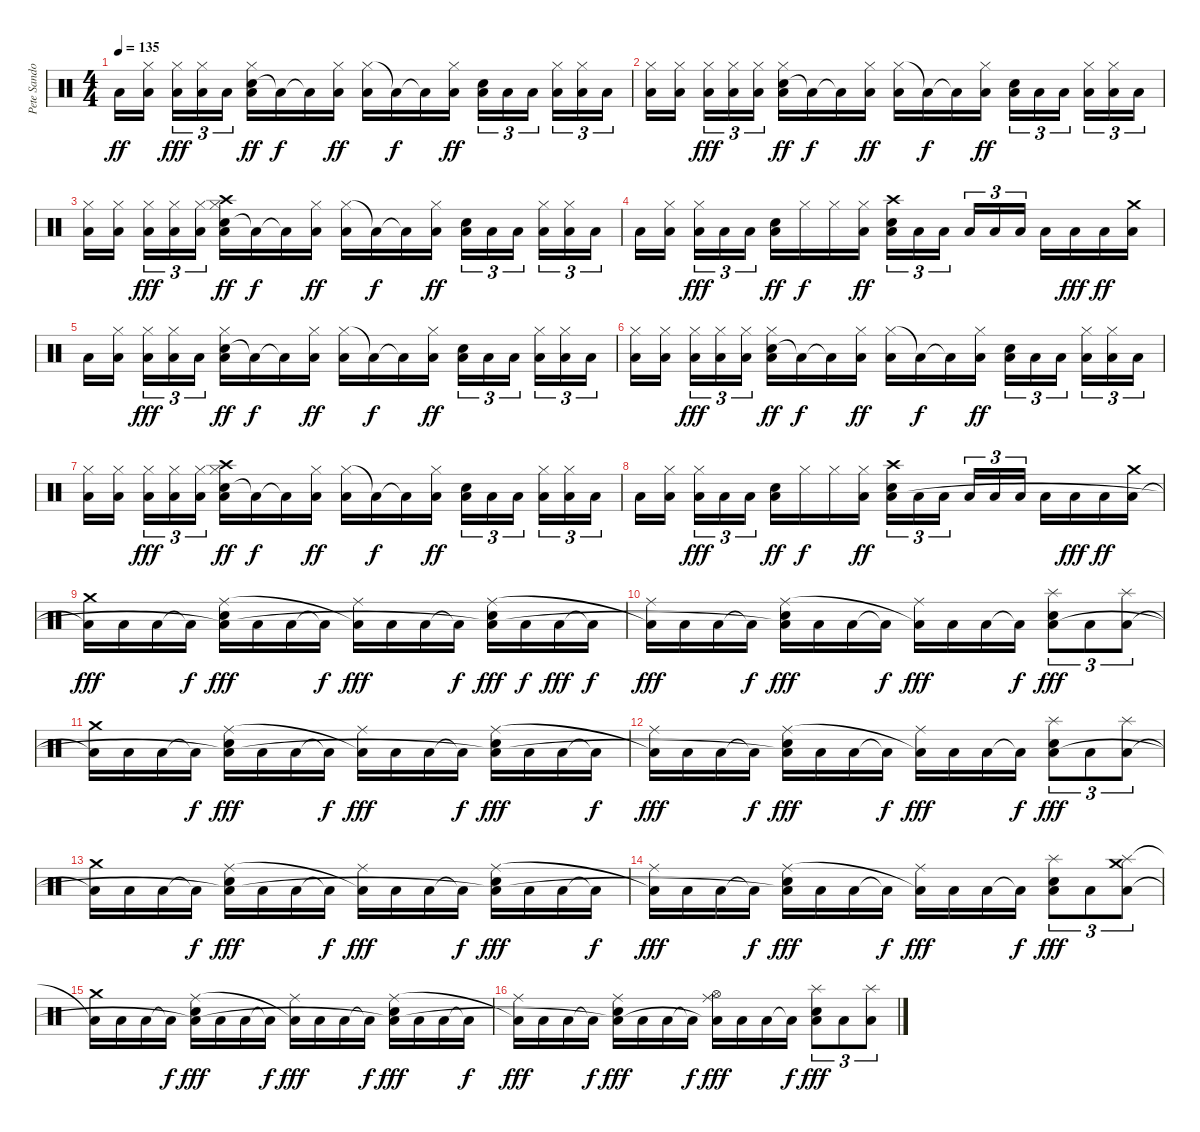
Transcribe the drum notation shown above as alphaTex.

\track ("Pete Sandoval" "Pete Sando") {instrument percussion}
\staff {score}
\articulation defaults
\ts (4 4)
\tempo 135
\clef neutral
\ks c "Low Floor Tom (hit)".16{dy ff}
("Hi-Hat (closed)" "Low Floor Tom (hit)").16{beam splitsecondary} ("Hi-Hat (closed)" "Low Floor Tom (hit)").16{tu (3 2) dy fff} ("Hi-Hat (closed)" "Low Floor Tom (hit)").16{tu (3 2)} "Low Floor Tom (hit)".16{tu (3 2)} ("Electric Snare (hit)" "Hi-Hat (closed)" "Low Floor Tom (hit)").16{dy ff} "Low Floor Tom (hit)"{t}.16{dy f} "Low Floor Tom (hit)"{t}.16 ("Hi-Hat (closed)" "Low Floor Tom (hit)").16{dy ff} ("Hi-Hat (closed)" "Low Floor Tom (hit)").16 "Low Floor Tom (hit)"{t}.16{dy f} "Low Floor Tom (hit)"{t}.16 ("Hi-Hat (closed)" "Low Floor Tom (hit)").16{dy ff} ("Electric Snare (hit)" "Low Floor Tom (hit)").16{tu (3 2)} "Low Floor Tom (hit)".16{tu (3 2)} "Low Floor Tom (hit)".16{tu (3 2) beam splitsecondary} ("Hi-Hat (closed)" "Low Floor Tom (hit)").16{tu (3 2)} ("Hi-Hat (closed)" "Low Floor Tom (hit)").16{tu (3 2)} "Low Floor Tom (hit)".16{tu (3 2)} |
("Hi-Hat (closed)" "Low Floor Tom (hit)").16 ("Hi-Hat (closed)" "Low Floor Tom (hit)").16{beam splitsecondary} ("Hi-Hat (closed)" "Low Floor Tom (hit)").16{tu (3 2) dy fff} ("Hi-Hat (closed)" "Low Floor Tom (hit)").16{tu (3 2)} ("Hi-Hat (closed)" "Low Floor Tom (hit)").16{tu (3 2)} ("Electric Snare (hit)" "Hi-Hat (closed)" "Low Floor Tom (hit)").16{dy ff} "Low Floor Tom (hit)"{t}.16{dy f} "Low Floor Tom (hit)"{t}.16 ("Hi-Hat (closed)" "Low Floor Tom (hit)").16{dy ff} ("Hi-Hat (closed)" "Low Floor Tom (hit)").16 "Low Floor Tom (hit)"{t}.16{dy f} "Low Floor Tom (hit)"{t}.16 ("Hi-Hat (closed)" "Low Floor Tom (hit)").16{dy ff} ("Electric Snare (hit)" "Low Floor Tom (hit)").16{tu (3 2)} "Low Floor Tom (hit)".16{tu (3 2)} "Low Floor Tom (hit)".16{tu (3 2) beam splitsecondary} ("Hi-Hat (closed)" "Low Floor Tom (hit)").16{tu (3 2)} ("Hi-Hat (closed)" "Low Floor Tom (hit)").16{tu (3 2)} "Low Floor Tom (hit)".16{tu (3 2)} |
("Hi-Hat (closed)" "Low Floor Tom (hit)").16 ("Hi-Hat (closed)" "Low Floor Tom (hit)").16{beam splitsecondary} ("Hi-Hat (closed)" "Low Floor Tom (hit)").16{tu (3 2) dy fff} ("Hi-Hat (closed)" "Low Floor Tom (hit)").16{tu (3 2)} ("Hi-Hat (closed)" "Low Floor Tom (hit)").16{tu (3 2)} ("Electric Snare (hit)" "Crash high (hit)" "Hi-Hat (closed)" "Low Floor Tom (hit)").16{dy ff} "Low Floor Tom (hit)"{t}.16{dy f} "Low Floor Tom (hit)"{t}.16 ("Hi-Hat (closed)" "Low Floor Tom (hit)").16{dy ff} ("Hi-Hat (closed)" "Low Floor Tom (hit)").16 "Low Floor Tom (hit)"{t}.16{dy f} "Low Floor Tom (hit)"{t}.16 ("Hi-Hat (closed)" "Low Floor Tom (hit)").16{dy ff} ("Electric Snare (hit)" "Low Floor Tom (hit)").16{tu (3 2)} "Low Floor Tom (hit)".16{tu (3 2)} "Low Floor Tom (hit)".16{tu (3 2) beam splitsecondary} ("Hi-Hat (closed)" "Low Floor Tom (hit)").16{tu (3 2)} ("Hi-Hat (closed)" "Low Floor Tom (hit)").16{tu (3 2)} "Low Floor Tom (hit)".16{tu (3 2)} |
"Low Floor Tom (hit)".16 ("Hi-Hat (closed)" "Low Floor Tom (hit)").16{beam splitsecondary} ("Hi-Hat (closed)" "Low Floor Tom (hit)").16{tu (3 2) dy fff} "Low Floor Tom (hit)".16{tu (3 2)} "Low Floor Tom (hit)".16{tu (3 2)} ("Electric Snare (hit)" "Low Floor Tom (hit)").16{dy ff} "Hi-Hat (closed)".16{dy f} "Hi-Hat (closed)".16 ("Hi-Hat (closed)" "Low Floor Tom (hit)").16{dy ff} ("Electric Snare (hit)" "Crash high (hit)" "Low Floor Tom (hit)").16{tu (3 2)} "Low Floor Tom (hit)".16{tu (3 2)} "Low Floor Tom (hit)".16{tu (3 2) beam splitsecondary} "Low Floor Tom (hit)".16{tu (3 2)} "Low Floor Tom (hit)".16{tu (3 2)} "Low Floor Tom (hit)".16{tu (3 2)} "Low Floor Tom (hit)".16 "Low Floor Tom (hit)".16{dy fff} "Low Floor Tom (hit)".16{dy ff} ("Crash medium (hit)" "Low Floor Tom (hit)").16 |
"Low Floor Tom (hit)".16 ("Hi-Hat (closed)" "Low Floor Tom (hit)").16{beam splitsecondary} ("Hi-Hat (closed)" "Low Floor Tom (hit)").16{tu (3 2) dy fff} ("Hi-Hat (closed)" "Low Floor Tom (hit)").16{tu (3 2)} "Low Floor Tom (hit)".16{tu (3 2)} ("Electric Snare (hit)" "Hi-Hat (closed)" "Low Floor Tom (hit)").16{dy ff} "Low Floor Tom (hit)"{t}.16{dy f} "Low Floor Tom (hit)"{t}.16 ("Hi-Hat (closed)" "Low Floor Tom (hit)").16{dy ff} ("Hi-Hat (closed)" "Low Floor Tom (hit)").16 "Low Floor Tom (hit)"{t}.16{dy f} "Low Floor Tom (hit)"{t}.16 ("Hi-Hat (closed)" "Low Floor Tom (hit)").16{dy ff} ("Electric Snare (hit)" "Low Floor Tom (hit)").16{tu (3 2)} "Low Floor Tom (hit)".16{tu (3 2)} "Low Floor Tom (hit)".16{tu (3 2) beam splitsecondary} ("Hi-Hat (closed)" "Low Floor Tom (hit)").16{tu (3 2)} ("Hi-Hat (closed)" "Low Floor Tom (hit)").16{tu (3 2)} "Low Floor Tom (hit)".16{tu (3 2)} |
("Hi-Hat (closed)" "Low Floor Tom (hit)").16 ("Hi-Hat (closed)" "Low Floor Tom (hit)").16{beam splitsecondary} ("Hi-Hat (closed)" "Low Floor Tom (hit)").16{tu (3 2) dy fff} ("Hi-Hat (closed)" "Low Floor Tom (hit)").16{tu (3 2)} ("Hi-Hat (closed)" "Low Floor Tom (hit)").16{tu (3 2)} ("Electric Snare (hit)" "Hi-Hat (closed)" "Low Floor Tom (hit)").16{dy ff} "Low Floor Tom (hit)"{t}.16{dy f} "Low Floor Tom (hit)"{t}.16 ("Hi-Hat (closed)" "Low Floor Tom (hit)").16{dy ff} ("Hi-Hat (closed)" "Low Floor Tom (hit)").16 "Low Floor Tom (hit)"{t}.16{dy f} "Low Floor Tom (hit)"{t}.16 ("Hi-Hat (closed)" "Low Floor Tom (hit)").16{dy ff} ("Electric Snare (hit)" "Low Floor Tom (hit)").16{tu (3 2)} "Low Floor Tom (hit)".16{tu (3 2)} "Low Floor Tom (hit)".16{tu (3 2) beam splitsecondary} ("Hi-Hat (closed)" "Low Floor Tom (hit)").16{tu (3 2)} ("Hi-Hat (closed)" "Low Floor Tom (hit)").16{tu (3 2)} "Low Floor Tom (hit)".16{tu (3 2)} |
("Hi-Hat (closed)" "Low Floor Tom (hit)").16 ("Hi-Hat (closed)" "Low Floor Tom (hit)").16{beam splitsecondary} ("Hi-Hat (closed)" "Low Floor Tom (hit)").16{tu (3 2) dy fff} ("Hi-Hat (closed)" "Low Floor Tom (hit)").16{tu (3 2)} ("Hi-Hat (closed)" "Low Floor Tom (hit)").16{tu (3 2)} ("Electric Snare (hit)" "Crash high (hit)" "Hi-Hat (closed)" "Low Floor Tom (hit)").16{dy ff} "Low Floor Tom (hit)"{t}.16{dy f} "Low Floor Tom (hit)"{t}.16 ("Hi-Hat (closed)" "Low Floor Tom (hit)").16{dy ff} ("Hi-Hat (closed)" "Low Floor Tom (hit)").16 "Low Floor Tom (hit)"{t}.16{dy f} "Low Floor Tom (hit)"{t}.16 ("Hi-Hat (closed)" "Low Floor Tom (hit)").16{dy ff} ("Electric Snare (hit)" "Low Floor Tom (hit)").16{tu (3 2)} "Low Floor Tom (hit)".16{tu (3 2)} "Low Floor Tom (hit)".16{tu (3 2) beam splitsecondary} ("Hi-Hat (closed)" "Low Floor Tom (hit)").16{tu (3 2)} ("Hi-Hat (closed)" "Low Floor Tom (hit)").16{tu (3 2)} "Low Floor Tom (hit)".16{tu (3 2)} |
"Low Floor Tom (hit)".16 ("Hi-Hat (closed)" "Low Floor Tom (hit)").16{beam splitsecondary} ("Hi-Hat (closed)" "Low Floor Tom (hit)").16{tu (3 2) dy fff} "Low Floor Tom (hit)".16{tu (3 2)} "Low Floor Tom (hit)".16{tu (3 2)} ("Electric Snare (hit)" "Low Floor Tom (hit)").16{dy ff} "Hi-Hat (closed)".16{dy f} "Hi-Hat (closed)".16 ("Hi-Hat (closed)" "Low Floor Tom (hit)").16{dy ff} ("Electric Snare (hit)" "Crash high (hit)" "Low Floor Tom (hit)").16{tu (3 2)} "Low Floor Tom (hit)".16{tu (3 2)} "Low Floor Tom (hit)".16{tu (3 2) beam splitsecondary} "Low Floor Tom (hit)".16{tu (3 2)} "Low Floor Tom (hit)".16{tu (3 2)} "Low Floor Tom (hit)".16{tu (3 2)} "Low Floor Tom (hit)".16 "Low Floor Tom (hit)".16{dy fff} "Low Floor Tom (hit)".16{dy ff} ("Crash medium (hit)" "Low Floor Tom (hit)").16 |
("Crash medium (hit)" "Low Floor Tom (hit)"{t}).16{dy fff} "Low Floor Tom (hit)".16 "Low Floor Tom (hit)".16 "Low Floor Tom (hit)"{t}.16{dy f} ("Electric Snare (hit)" "Ride (middle)" "Low Floor Tom (hit)"{t}).16{dy fff} "Low Floor Tom (hit)".16 "Low Floor Tom (hit)".16 "Low Floor Tom (hit)"{t}.16{dy f} ("Ride (middle)" "Low Floor Tom (hit)"{t}).16{dy fff} "Low Floor Tom (hit)".16 "Low Floor Tom (hit)".16 "Low Floor Tom (hit)"{t}.16{dy f} ("Electric Snare (hit)" "Ride (middle)" "Low Floor Tom (hit)"{t}).16{dy fff} "Low Floor Tom (hit)".16{dy f} "Low Floor Tom (hit)".16{dy fff} "Low Floor Tom (hit)"{t}.16{dy f} |
("Ride (middle)" "Low Floor Tom (hit)"{t}).16{dy fff} "Low Floor Tom (hit)".16 "Low Floor Tom (hit)".16 "Low Floor Tom (hit)"{t}.16{dy f} ("Electric Snare (hit)" "Ride (middle)" "Low Floor Tom (hit)"{t}).16{dy fff} "Low Floor Tom (hit)".16 "Low Floor Tom (hit)".16 "Low Floor Tom (hit)"{t}.16{dy f} ("Ride (middle)" "Low Floor Tom (hit)"{t}).16{dy fff} "Low Floor Tom (hit)".16 "Low Floor Tom (hit)".16 "Low Floor Tom (hit)"{t}.16{dy f} ("Electric Snare (hit)" "Splash (hit)" "Low Floor Tom (hit)").8{tu (3 2) dy fff} "Low Floor Tom (hit)".8{tu (3 2)} ("Splash (hit)" "Low Floor Tom (hit)").8{tu (3 2)} |
("Crash medium (hit)" "Low Floor Tom (hit)"{t}).16 "Low Floor Tom (hit)".16 "Low Floor Tom (hit)".16 "Low Floor Tom (hit)"{t}.16{dy f} ("Electric Snare (hit)" "Ride (middle)" "Low Floor Tom (hit)"{t}).16{dy fff} "Low Floor Tom (hit)".16 "Low Floor Tom (hit)".16 "Low Floor Tom (hit)"{t}.16{dy f} ("Ride (middle)" "Low Floor Tom (hit)"{t}).16{dy fff} "Low Floor Tom (hit)".16 "Low Floor Tom (hit)".16 "Low Floor Tom (hit)"{t}.16{dy f} ("Electric Snare (hit)" "Ride (middle)" "Low Floor Tom (hit)"{t}).16{dy fff} "Low Floor Tom (hit)".16 "Low Floor Tom (hit)".16 "Low Floor Tom (hit)"{t}.16{dy f} |
("Ride (middle)" "Low Floor Tom (hit)"{t}).16{dy fff} "Low Floor Tom (hit)".16 "Low Floor Tom (hit)".16 "Low Floor Tom (hit)"{t}.16{dy f} ("Electric Snare (hit)" "Ride (middle)" "Low Floor Tom (hit)"{t}).16{dy fff} "Low Floor Tom (hit)".16 "Low Floor Tom (hit)".16 "Low Floor Tom (hit)"{t}.16{dy f} ("Ride (middle)" "Low Floor Tom (hit)"{t}).16{dy fff} "Low Floor Tom (hit)".16 "Low Floor Tom (hit)".16 "Low Floor Tom (hit)"{t}.16{dy f} ("Electric Snare (hit)" "Splash (hit)" "Low Floor Tom (hit)").8{tu (3 2) dy fff} "Low Floor Tom (hit)".8{tu (3 2)} ("Splash (hit)" "Low Floor Tom (hit)").8{tu (3 2)} |
("Crash medium (hit)" "Low Floor Tom (hit)"{t}).16 "Low Floor Tom (hit)".16 "Low Floor Tom (hit)".16 "Low Floor Tom (hit)"{t}.16{dy f} ("Electric Snare (hit)" "Ride (middle)" "Low Floor Tom (hit)"{t}).16{dy fff} "Low Floor Tom (hit)".16 "Low Floor Tom (hit)".16 "Low Floor Tom (hit)"{t}.16{dy f} ("Ride (middle)" "Low Floor Tom (hit)"{t}).16{dy fff} "Low Floor Tom (hit)".16 "Low Floor Tom (hit)".16 "Low Floor Tom (hit)"{t}.16{dy f} ("Electric Snare (hit)" "Ride (middle)" "Low Floor Tom (hit)"{t}).16{dy fff} "Low Floor Tom (hit)".16 "Low Floor Tom (hit)".16 "Low Floor Tom (hit)"{t}.16{dy f} |
("Ride (middle)" "Low Floor Tom (hit)"{t}).16{dy fff} "Low Floor Tom (hit)".16 "Low Floor Tom (hit)".16 "Low Floor Tom (hit)"{t}.16{dy f} ("Electric Snare (hit)" "Ride (middle)" "Low Floor Tom (hit)"{t}).16{dy fff} "Low Floor Tom (hit)".16 "Low Floor Tom (hit)".16 "Low Floor Tom (hit)"{t}.16{dy f} ("Ride (middle)" "Low Floor Tom (hit)"{t}).16{dy fff} "Low Floor Tom (hit)".16 "Low Floor Tom (hit)".16 "Low Floor Tom (hit)"{t}.16{dy f} ("Electric Snare (hit)" "Splash (hit)" "Low Floor Tom (hit)").8{tu (3 2) dy fff} "Low Floor Tom (hit)".8{tu (3 2)} ("Crash medium (hit)" "Splash (hit)" "Low Floor Tom (hit)").8{tu (3 2)} |
("Crash medium (hit)" "Low Floor Tom (hit)"{t}).16 "Low Floor Tom (hit)".16 "Low Floor Tom (hit)".16 "Low Floor Tom (hit)"{t}.16{dy f} ("Electric Snare (hit)" "Ride (middle)" "Low Floor Tom (hit)"{t}).16{dy fff} "Low Floor Tom (hit)".16 "Low Floor Tom (hit)".16 "Low Floor Tom (hit)"{t}.16{dy f} ("Ride (middle)" "Low Floor Tom (hit)"{t}).16{dy fff} "Low Floor Tom (hit)".16 "Low Floor Tom (hit)".16 "Low Floor Tom (hit)"{t}.16{dy f} ("Electric Snare (hit)" "Ride (middle)" "Low Floor Tom (hit)"{t}).16{dy fff} "Low Floor Tom (hit)".16 "Low Floor Tom (hit)".16 "Low Floor Tom (hit)"{t}.16{dy f} |
("Ride (middle)" "Low Floor Tom (hit)"{t}).16{dy fff} "Low Floor Tom (hit)".16 "Low Floor Tom (hit)".16 "Low Floor Tom (hit)"{t}.16{dy f} ("Electric Snare (hit)" "Ride (middle)" "Low Floor Tom (hit)"{t}).16{dy fff} "Low Floor Tom (hit)".16 "Low Floor Tom (hit)".16 "Low Floor Tom (hit)"{t}.16{dy f} ("Ride (middle)" "Hi-Hat (open)" "Low Floor Tom (hit)"{t}).16{dy fff} "Low Floor Tom (hit)".16 "Low Floor Tom (hit)".16 "Low Floor Tom (hit)"{t}.16{dy f} ("Electric Snare (hit)" "Splash (hit)" "Low Floor Tom (hit)").8{tu (3 2) dy fff} "Low Floor Tom (hit)".8{tu (3 2)} ("Splash (hit)" "Low Floor Tom (hit)").8{tu (3 2)}
